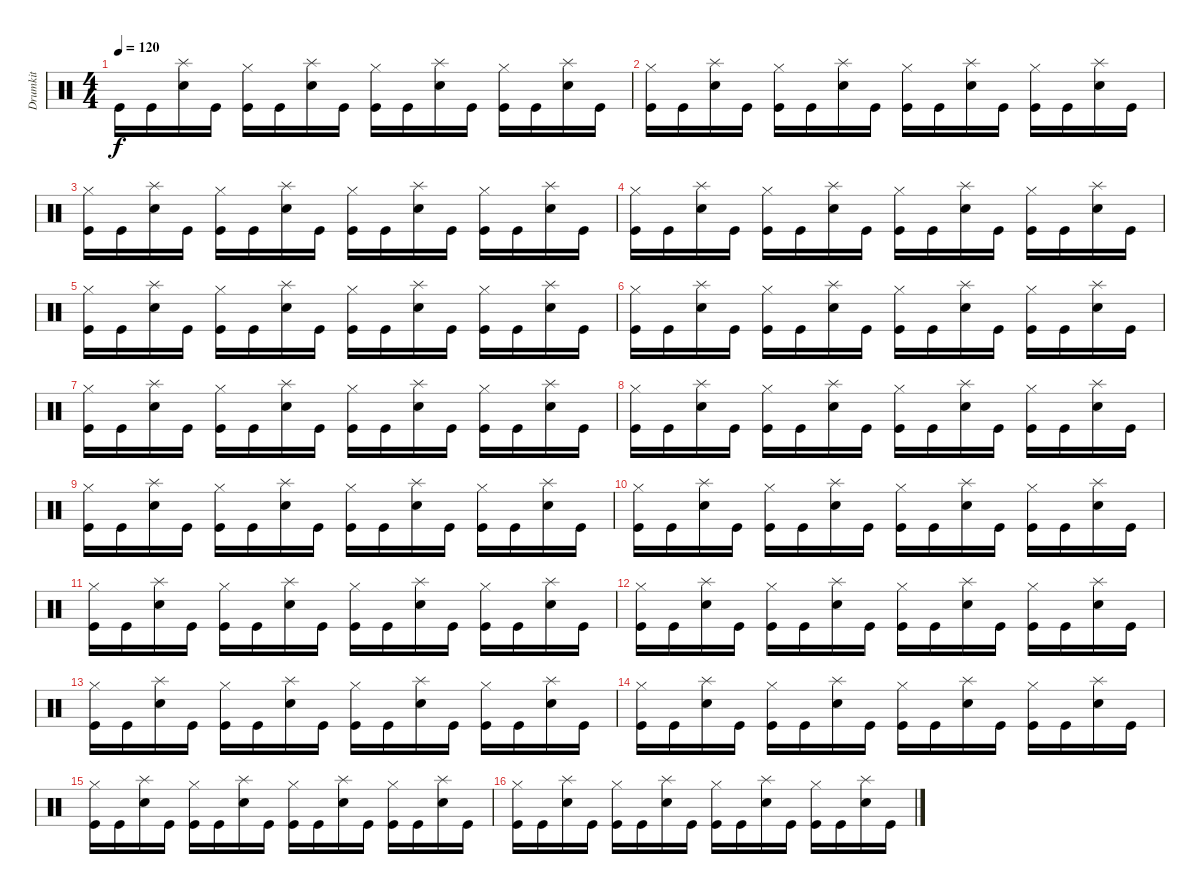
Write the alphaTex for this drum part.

\track ("Drumkit" "Drumkit") {instrument percussion}
\staff {score}
\articulation defaults
\ts (4 4)
\tempo 120
\clef neutral
\ks c "Kick (hit)".16{dy f} "Kick (hit)".16
("Splash (hit)" "Electric Snare (hit)").16 "Kick (hit)".16 ("Hi-Hat (closed)" "Kick (hit)").16 "Kick (hit)".16 ("Splash (hit)" "Electric Snare (hit)").16 "Kick (hit)".16 ("Hi-Hat (closed)" "Kick (hit)").16 "Kick (hit)".16 ("Splash (hit)" "Electric Snare (hit)").16 "Kick (hit)".16 ("Hi-Hat (closed)" "Kick (hit)").16 "Kick (hit)".16 ("Splash (hit)" "Electric Snare (hit)").16 "Kick (hit)".16 |
("Hi-Hat (closed)" "Kick (hit)").16 "Kick (hit)".16 ("Splash (hit)" "Electric Snare (hit)").16 "Kick (hit)".16 ("Hi-Hat (closed)" "Kick (hit)").16 "Kick (hit)".16 ("Splash (hit)" "Electric Snare (hit)").16 "Kick (hit)".16 ("Hi-Hat (closed)" "Kick (hit)").16 "Kick (hit)".16 ("Splash (hit)" "Electric Snare (hit)").16 "Kick (hit)".16 ("Hi-Hat (closed)" "Kick (hit)").16 "Kick (hit)".16 ("Splash (hit)" "Electric Snare (hit)").16 "Kick (hit)".16 |
("Hi-Hat (closed)" "Kick (hit)").16 "Kick (hit)".16 ("Splash (hit)" "Electric Snare (hit)").16 "Kick (hit)".16 ("Hi-Hat (closed)" "Kick (hit)").16 "Kick (hit)".16 ("Splash (hit)" "Electric Snare (hit)").16 "Kick (hit)".16 ("Hi-Hat (closed)" "Kick (hit)").16 "Kick (hit)".16 ("Splash (hit)" "Electric Snare (hit)").16 "Kick (hit)".16 ("Hi-Hat (closed)" "Kick (hit)").16 "Kick (hit)".16 ("Splash (hit)" "Electric Snare (hit)").16 "Kick (hit)".16 |
("Hi-Hat (closed)" "Kick (hit)").16 "Kick (hit)".16 ("Splash (hit)" "Electric Snare (hit)").16 "Kick (hit)".16 ("Hi-Hat (closed)" "Kick (hit)").16 "Kick (hit)".16 ("Splash (hit)" "Electric Snare (hit)").16 "Kick (hit)".16 ("Hi-Hat (closed)" "Kick (hit)").16 "Kick (hit)".16 ("Splash (hit)" "Electric Snare (hit)").16 "Kick (hit)".16 ("Hi-Hat (closed)" "Kick (hit)").16 "Kick (hit)".16 ("Splash (hit)" "Electric Snare (hit)").16 "Kick (hit)".16 |
("Hi-Hat (closed)" "Kick (hit)").16 "Kick (hit)".16 ("Splash (hit)" "Electric Snare (hit)").16 "Kick (hit)".16 ("Hi-Hat (closed)" "Kick (hit)").16 "Kick (hit)".16 ("Splash (hit)" "Electric Snare (hit)").16 "Kick (hit)".16 ("Hi-Hat (closed)" "Kick (hit)").16 "Kick (hit)".16 ("Splash (hit)" "Electric Snare (hit)").16 "Kick (hit)".16 ("Hi-Hat (closed)" "Kick (hit)").16 "Kick (hit)".16 ("Splash (hit)" "Electric Snare (hit)").16 "Kick (hit)".16 |
("Hi-Hat (closed)" "Kick (hit)").16 "Kick (hit)".16 ("Splash (hit)" "Electric Snare (hit)").16 "Kick (hit)".16 ("Hi-Hat (closed)" "Kick (hit)").16 "Kick (hit)".16 ("Splash (hit)" "Electric Snare (hit)").16 "Kick (hit)".16 ("Hi-Hat (closed)" "Kick (hit)").16 "Kick (hit)".16 ("Splash (hit)" "Electric Snare (hit)").16 "Kick (hit)".16 ("Hi-Hat (closed)" "Kick (hit)").16 "Kick (hit)".16 ("Splash (hit)" "Electric Snare (hit)").16 "Kick (hit)".16 |
("Hi-Hat (closed)" "Kick (hit)").16 "Kick (hit)".16 ("Splash (hit)" "Electric Snare (hit)").16 "Kick (hit)".16 ("Hi-Hat (closed)" "Kick (hit)").16 "Kick (hit)".16 ("Splash (hit)" "Electric Snare (hit)").16 "Kick (hit)".16 ("Hi-Hat (closed)" "Kick (hit)").16 "Kick (hit)".16 ("Splash (hit)" "Electric Snare (hit)").16 "Kick (hit)".16 ("Hi-Hat (closed)" "Kick (hit)").16 "Kick (hit)".16 ("Splash (hit)" "Electric Snare (hit)").16 "Kick (hit)".16 |
("Hi-Hat (closed)" "Kick (hit)").16 "Kick (hit)".16 ("Splash (hit)" "Electric Snare (hit)").16 "Kick (hit)".16 ("Hi-Hat (closed)" "Kick (hit)").16 "Kick (hit)".16 ("Splash (hit)" "Electric Snare (hit)").16 "Kick (hit)".16 ("Hi-Hat (closed)" "Kick (hit)").16 "Kick (hit)".16 ("Splash (hit)" "Electric Snare (hit)").16 "Kick (hit)".16 ("Hi-Hat (closed)" "Kick (hit)").16 "Kick (hit)".16 ("Splash (hit)" "Electric Snare (hit)").16 "Kick (hit)".16 |
("Hi-Hat (closed)" "Kick (hit)").16 "Kick (hit)".16 ("Splash (hit)" "Electric Snare (hit)").16 "Kick (hit)".16 ("Hi-Hat (closed)" "Kick (hit)").16 "Kick (hit)".16 ("Splash (hit)" "Electric Snare (hit)").16 "Kick (hit)".16 ("Hi-Hat (closed)" "Kick (hit)").16 "Kick (hit)".16 ("Splash (hit)" "Electric Snare (hit)").16 "Kick (hit)".16 ("Hi-Hat (closed)" "Kick (hit)").16 "Kick (hit)".16 ("Splash (hit)" "Electric Snare (hit)").16 "Kick (hit)".16 |
("Hi-Hat (closed)" "Kick (hit)").16 "Kick (hit)".16 ("Splash (hit)" "Electric Snare (hit)").16 "Kick (hit)".16 ("Hi-Hat (closed)" "Kick (hit)").16 "Kick (hit)".16 ("Splash (hit)" "Electric Snare (hit)").16 "Kick (hit)".16 ("Hi-Hat (closed)" "Kick (hit)").16 "Kick (hit)".16 ("Splash (hit)" "Electric Snare (hit)").16 "Kick (hit)".16 ("Hi-Hat (closed)" "Kick (hit)").16 "Kick (hit)".16 ("Splash (hit)" "Electric Snare (hit)").16 "Kick (hit)".16 |
("Hi-Hat (closed)" "Kick (hit)").16 "Kick (hit)".16 ("Splash (hit)" "Electric Snare (hit)").16 "Kick (hit)".16 ("Hi-Hat (closed)" "Kick (hit)").16 "Kick (hit)".16 ("Splash (hit)" "Electric Snare (hit)").16 "Kick (hit)".16 ("Hi-Hat (closed)" "Kick (hit)").16 "Kick (hit)".16 ("Splash (hit)" "Electric Snare (hit)").16 "Kick (hit)".16 ("Hi-Hat (closed)" "Kick (hit)").16 "Kick (hit)".16 ("Splash (hit)" "Electric Snare (hit)").16 "Kick (hit)".16 |
("Hi-Hat (closed)" "Kick (hit)").16 "Kick (hit)".16 ("Splash (hit)" "Electric Snare (hit)").16 "Kick (hit)".16 ("Hi-Hat (closed)" "Kick (hit)").16 "Kick (hit)".16 ("Splash (hit)" "Electric Snare (hit)").16 "Kick (hit)".16 ("Hi-Hat (closed)" "Kick (hit)").16 "Kick (hit)".16 ("Splash (hit)" "Electric Snare (hit)").16 "Kick (hit)".16 ("Hi-Hat (closed)" "Kick (hit)").16 "Kick (hit)".16 ("Splash (hit)" "Electric Snare (hit)").16 "Kick (hit)".16 |
("Hi-Hat (closed)" "Kick (hit)").16 "Kick (hit)".16 ("Splash (hit)" "Electric Snare (hit)").16 "Kick (hit)".16 ("Hi-Hat (closed)" "Kick (hit)").16 "Kick (hit)".16 ("Splash (hit)" "Electric Snare (hit)").16 "Kick (hit)".16 ("Hi-Hat (closed)" "Kick (hit)").16 "Kick (hit)".16 ("Splash (hit)" "Electric Snare (hit)").16 "Kick (hit)".16 ("Hi-Hat (closed)" "Kick (hit)").16 "Kick (hit)".16 ("Splash (hit)" "Electric Snare (hit)").16 "Kick (hit)".16 |
("Hi-Hat (closed)" "Kick (hit)").16 "Kick (hit)".16 ("Splash (hit)" "Electric Snare (hit)").16 "Kick (hit)".16 ("Hi-Hat (closed)" "Kick (hit)").16 "Kick (hit)".16 ("Splash (hit)" "Electric Snare (hit)").16 "Kick (hit)".16 ("Hi-Hat (closed)" "Kick (hit)").16 "Kick (hit)".16 ("Splash (hit)" "Electric Snare (hit)").16 "Kick (hit)".16 ("Hi-Hat (closed)" "Kick (hit)").16 "Kick (hit)".16 ("Splash (hit)" "Electric Snare (hit)").16 "Kick (hit)".16 |
("Hi-Hat (closed)" "Kick (hit)").16 "Kick (hit)".16 ("Splash (hit)" "Electric Snare (hit)").16 "Kick (hit)".16 ("Hi-Hat (closed)" "Kick (hit)").16 "Kick (hit)".16 ("Splash (hit)" "Electric Snare (hit)").16 "Kick (hit)".16 ("Hi-Hat (closed)" "Kick (hit)").16 "Kick (hit)".16 ("Splash (hit)" "Electric Snare (hit)").16 "Kick (hit)".16 ("Hi-Hat (closed)" "Kick (hit)").16 "Kick (hit)".16 ("Splash (hit)" "Electric Snare (hit)").16 "Kick (hit)".16 |
("Hi-Hat (closed)" "Kick (hit)").16 "Kick (hit)".16 ("Splash (hit)" "Electric Snare (hit)").16 "Kick (hit)".16 ("Hi-Hat (closed)" "Kick (hit)").16 "Kick (hit)".16 ("Splash (hit)" "Electric Snare (hit)").16 "Kick (hit)".16 ("Hi-Hat (closed)" "Kick (hit)").16 "Kick (hit)".16 ("Splash (hit)" "Electric Snare (hit)").16 "Kick (hit)".16 ("Hi-Hat (closed)" "Kick (hit)").16 "Kick (hit)".16 ("Splash (hit)" "Electric Snare (hit)").16 "Kick (hit)".16
